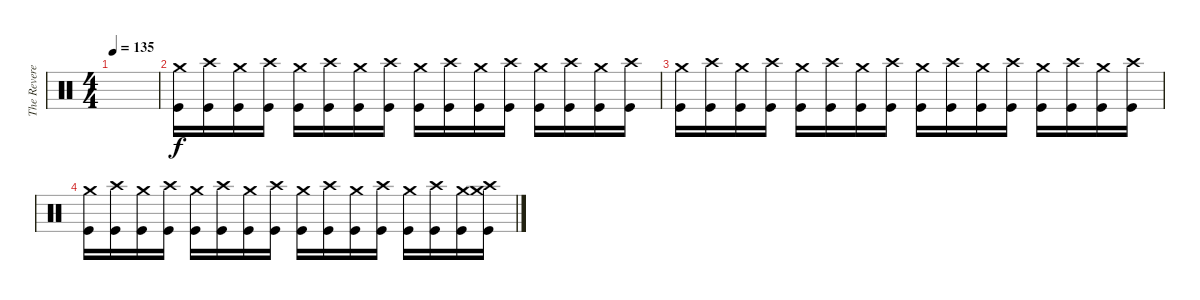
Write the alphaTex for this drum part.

\track ("The Reverend" "The Revere") {instrument percussion}
\staff {score}
\articulation defaults
\ts (4 4)
\tempo 135
\clef neutral
\ks c
|
("Crash medium (hit)" "Kick (hit)").16 ("Crash high (hit)" "Kick (hit)").16 ("Crash medium (hit)" "Kick (hit)").16 ("Crash high (hit)" "Kick (hit)").16 ("Crash medium (hit)" "Kick (hit)").16 ("Crash high (hit)" "Kick (hit)").16 ("Crash medium (hit)" "Kick (hit)").16 ("Crash high (hit)" "Kick (hit)").16 ("Crash medium (hit)" "Kick (hit)").16 ("Crash high (hit)" "Kick (hit)").16 ("Crash medium (hit)" "Kick (hit)").16 ("Crash high (hit)" "Kick (hit)").16 ("Crash medium (hit)" "Kick (hit)").16 ("Crash high (hit)" "Kick (hit)").16 ("Crash medium (hit)" "Kick (hit)").16 ("Crash high (hit)" "Kick (hit)").16 |
("Crash medium (hit)" "Kick (hit)").16 ("Crash high (hit)" "Kick (hit)").16 ("Crash medium (hit)" "Kick (hit)").16 ("Crash high (hit)" "Kick (hit)").16 ("Crash medium (hit)" "Kick (hit)").16 ("Crash high (hit)" "Kick (hit)").16 ("Crash medium (hit)" "Kick (hit)").16 ("Crash high (hit)" "Kick (hit)").16 ("Crash medium (hit)" "Kick (hit)").16 ("Crash high (hit)" "Kick (hit)").16 ("Crash medium (hit)" "Kick (hit)").16 ("Crash high (hit)" "Kick (hit)").16 ("Crash medium (hit)" "Kick (hit)").16 ("Crash high (hit)" "Kick (hit)").16 ("Crash medium (hit)" "Kick (hit)").16 ("Crash high (hit)" "Kick (hit)").16 |
("Crash medium (hit)" "Kick (hit)").16 ("Crash high (hit)" "Kick (hit)").16 ("Crash medium (hit)" "Kick (hit)").16 ("Crash high (hit)" "Kick (hit)").16 ("Crash medium (hit)" "Kick (hit)").16 ("Crash high (hit)" "Kick (hit)").16 ("Crash medium (hit)" "Kick (hit)").16 ("Crash high (hit)" "Kick (hit)").16 ("Crash medium (hit)" "Kick (hit)").16 ("Crash high (hit)" "Kick (hit)").16 ("Crash medium (hit)" "Kick (hit)").16 ("Crash high (hit)" "Kick (hit)").16 ("Crash medium (hit)" "Kick (hit)").16 ("Crash high (hit)" "Kick (hit)").16 ("Crash medium (hit)" "Kick (hit)").16 ("Crash medium (hit)" "Crash high (hit)" "Kick (hit)").16
